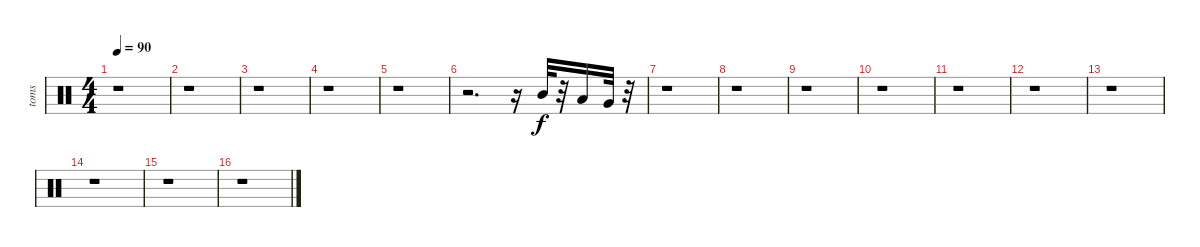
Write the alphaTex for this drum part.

\track ("toms" "toms") {instrument percussion}
\staff {score}
\articulation defaults
\ts (4 4)
\tempo 90
\clef neutral
\ks c
r.1{dy f} |
r.1 |
r.1 |
r.1 |
r.1 |
r.2{d} r.16 "Mid Tom (hit)".32 r.32 "Low Tom (hit)".16 "Very Low Tom (hit)".32 r.32 |
r.1 |
r.1 |
r.1 |
r.1 |
r.1 |
r.1 |
r.1 |
r.1 |
r.1 |
r.1
